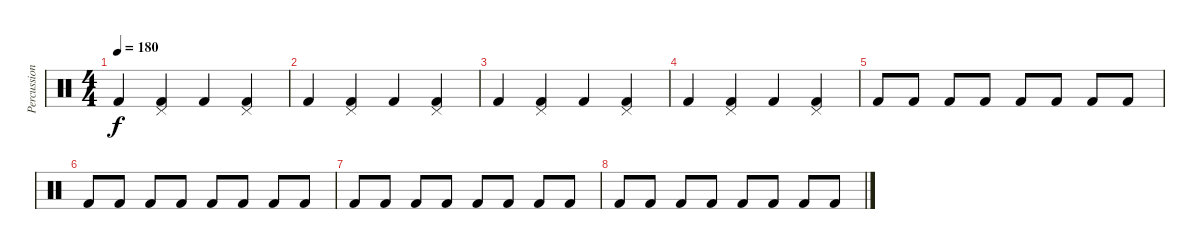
\track ("Percussion" "Percussion") {instrument percussion bank 177}
\staff {score}
\articulation defaults
\ts (4 4)
\tempo 180
\clef neutral
\ks c "Kick (hit) 2".4{dy f}
("Pedal Hi-Hat (hit)" "Kick (hit) 2").4 "Kick (hit) 2".4 ("Pedal Hi-Hat (hit)" "Kick (hit) 2").4 |
"Kick (hit) 2".4 ("Pedal Hi-Hat (hit)" "Kick (hit) 2").4 "Kick (hit) 2".4 ("Pedal Hi-Hat (hit)" "Kick (hit) 2").4 |
"Kick (hit) 2".4 ("Pedal Hi-Hat (hit)" "Kick (hit) 2").4 "Kick (hit) 2".4 ("Pedal Hi-Hat (hit)" "Kick (hit) 2").4 |
"Kick (hit) 2".4 ("Pedal Hi-Hat (hit)" "Kick (hit) 2").4 "Kick (hit) 2".4 ("Pedal Hi-Hat (hit)" "Kick (hit) 2").4 |
"Kick (hit) 2".8 "Kick (hit) 2".8 "Kick (hit) 2".8 "Kick (hit) 2".8 "Kick (hit) 2".8 "Kick (hit) 2".8 "Kick (hit) 2".8 "Kick (hit) 2".8 |
"Kick (hit) 2".8 "Kick (hit) 2".8 "Kick (hit) 2".8 "Kick (hit) 2".8 "Kick (hit) 2".8 "Kick (hit) 2".8 "Kick (hit) 2".8 "Kick (hit) 2".8 |
"Kick (hit) 2".8 "Kick (hit) 2".8 "Kick (hit) 2".8 "Kick (hit) 2".8 "Kick (hit) 2".8 "Kick (hit) 2".8 "Kick (hit) 2".8 "Kick (hit) 2".8 |
"Kick (hit) 2".8 "Kick (hit) 2".8 "Kick (hit) 2".8 "Kick (hit) 2".8 "Kick (hit) 2".8 "Kick (hit) 2".8 "Kick (hit) 2".8 "Kick (hit) 2".8
